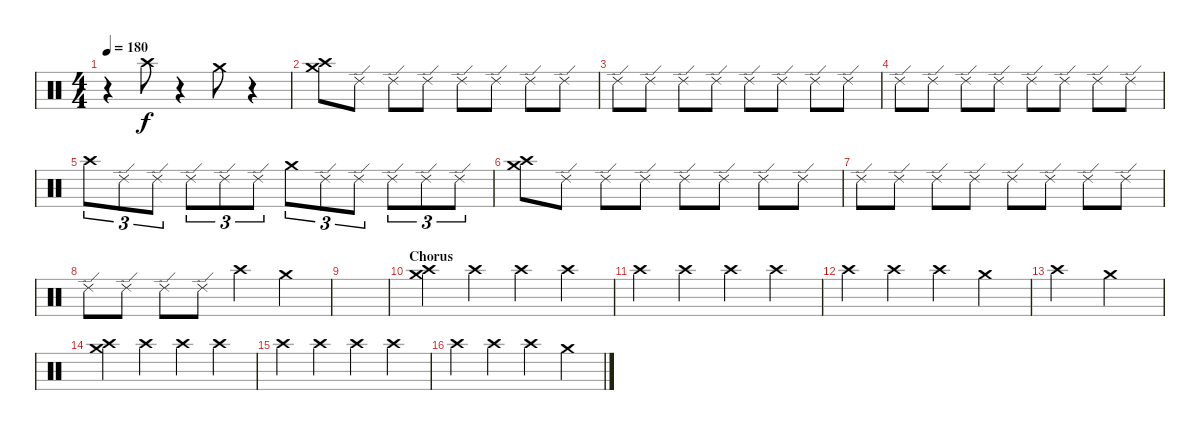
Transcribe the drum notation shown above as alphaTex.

\track "" {instrument percussion}
\staff {score}
\articulation defaults
\ts (4 4)
\tempo 180
\clef neutral
\ks c
r.4{dy f} "Crash high (hit)".8 r.4 "Crash medium (hit)".8 r.4 |
("Crash medium (hit)" "Crash high (hit)").8 "Ride (edge) 2".8 "Ride (edge) 2".8 "Ride (edge) 2".8 "Ride (edge) 2".8 "Ride (edge) 2".8 "Ride (edge) 2".8 "Ride (edge) 2".8 |
"Ride (edge) 2".8 "Ride (edge) 2".8 "Ride (edge) 2".8 "Ride (edge) 2".8 "Ride (edge) 2".8 "Ride (edge) 2".8 "Ride (edge) 2".8 "Ride (edge) 2".8 |
"Ride (edge) 2".8 "Ride (edge) 2".8 "Ride (edge) 2".8 "Ride (edge) 2".8 "Ride (edge) 2".8 "Ride (edge) 2".8 "Ride (edge) 2".8 "Ride (edge) 2".8 |
"Crash high (hit)".8{tu (3 2)} "Ride (edge) 2".8{tu (3 2)} "Ride (edge) 2".8{tu (3 2)} "Ride (edge) 2".8{tu (3 2)} "Ride (edge) 2".8{tu (3 2)} "Ride (edge) 2".8{tu (3 2)} "Crash medium (hit)".8{tu (3 2)} "Ride (edge) 2".8{tu (3 2)} "Ride (edge) 2".8{tu (3 2)} "Ride (edge) 2".8{tu (3 2)} "Ride (edge) 2".8{tu (3 2)} "Ride (edge) 2".8{tu (3 2)} |
("Crash medium (hit)" "Crash high (hit)").8 "Ride (edge) 2".8 "Ride (edge) 2".8 "Ride (edge) 2".8 "Ride (edge) 2".8 "Ride (edge) 2".8 "Ride (edge) 2".8 "Ride (edge) 2".8 |
"Ride (edge) 2".8 "Ride (edge) 2".8 "Ride (edge) 2".8 "Ride (edge) 2".8 "Ride (edge) 2".8 "Ride (edge) 2".8 "Ride (edge) 2".8 "Ride (edge) 2".8 |
"Ride (edge) 2".8 "Ride (edge) 2".8 "Ride (edge) 2".8 "Ride (edge) 2".8 "Crash high (hit)".4 "Crash medium (hit)".4 |
|
\section ("" "Chorus")
("Crash medium (hit)" "Crash high (hit)").4 "Crash high (hit)".4 "Crash high (hit)".4 "Crash high (hit)".4 |
"Crash high (hit)".4 "Crash high (hit)".4 "Crash high (hit)".4 "Crash high (hit)".4 |
"Crash high (hit)".4 "Crash high (hit)".4 "Crash high (hit)".4 "Crash medium (hit)".4 |
"Crash high (hit)".2 "Crash medium (hit)".2 |
("Crash medium (hit)" "Crash high (hit)").4 "Crash high (hit)".4 "Crash high (hit)".4 "Crash high (hit)".4 |
"Crash high (hit)".4 "Crash high (hit)".4 "Crash high (hit)".4 "Crash high (hit)".4 |
"Crash high (hit)".4 "Crash high (hit)".4 "Crash high (hit)".4 "Crash medium (hit)".4
